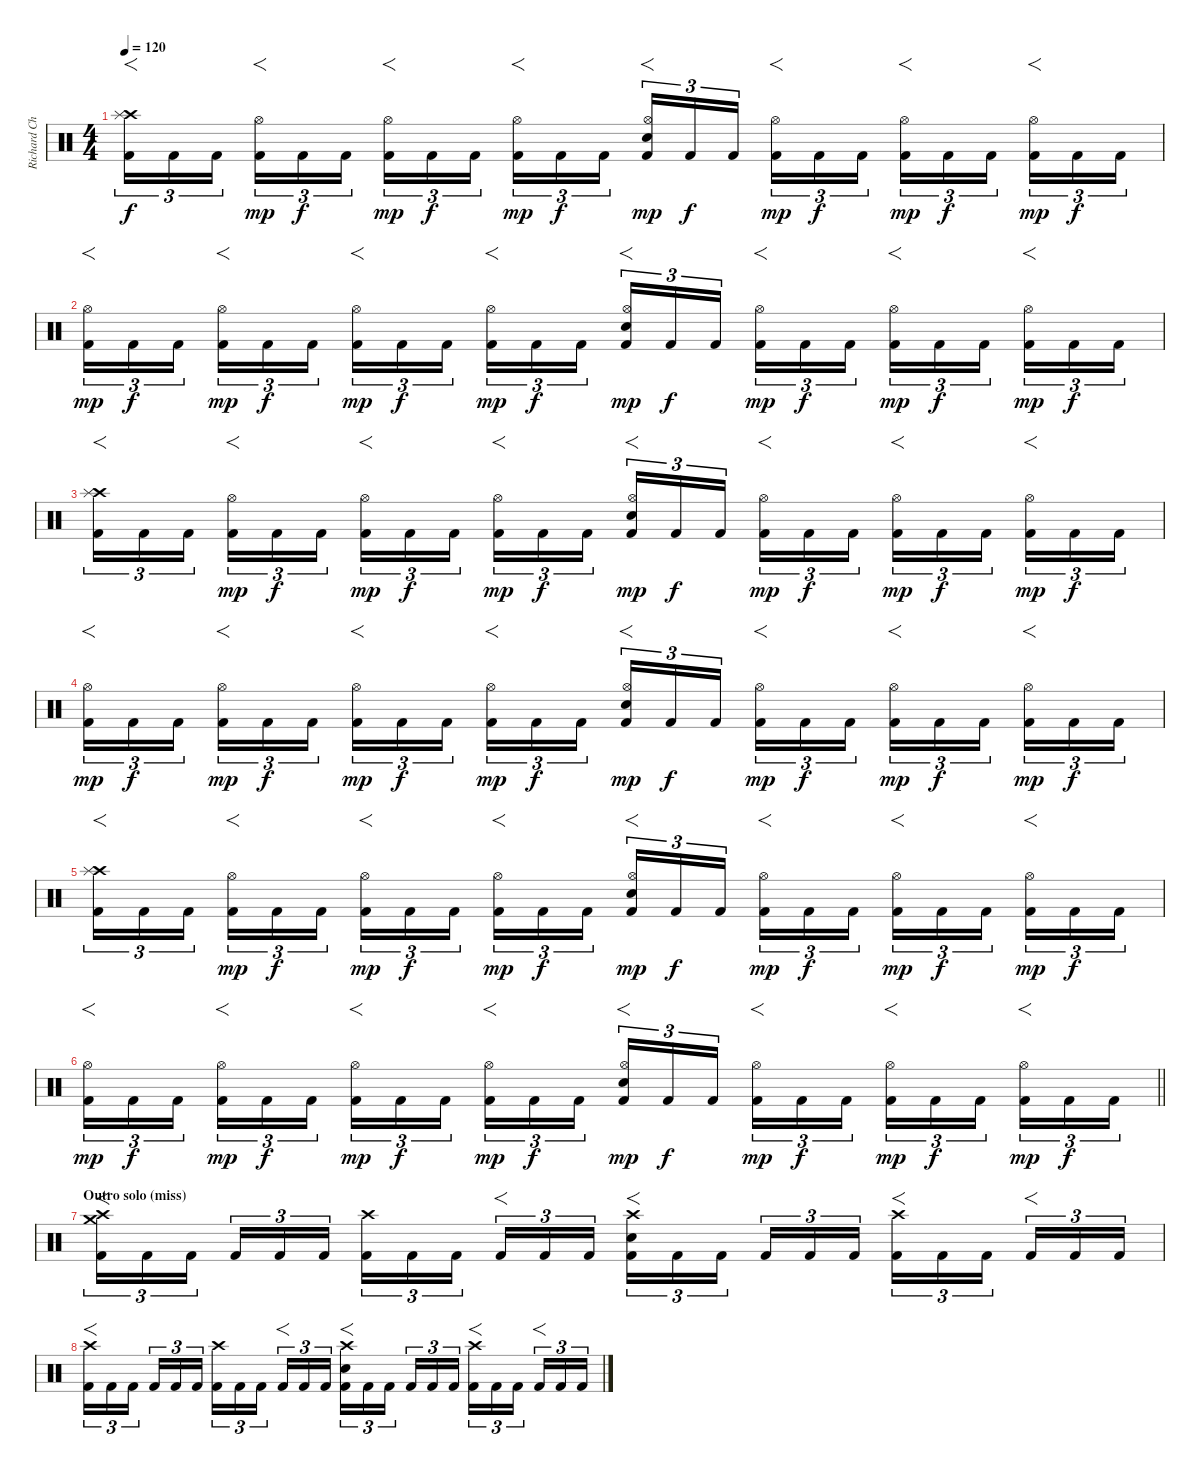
\track ("Richard Christy" "Richard Ch") {instrument percussion}
\staff {score}
\articulation defaults
\ts (4 4)
\tempo 120
\clef neutral
\ks c
("Crash high (hit)" "Splash (hit)" "Kick (hit) 2").16{f tu (3 2) dy f} "Kick (hit) 2".16{tu (3 2)} "Kick (hit) 2".16{tu (3 2) beam splitsecondary} ("Hi-Hat (open)" "Kick (hit) 2").16{f tu (3 2) dy mp} "Kick (hit) 2".16{tu (3 2) dy f} "Kick (hit) 2".16{tu (3 2)} ("Hi-Hat (open)" "Kick (hit) 2").16{f tu (3 2) dy mp} "Kick (hit) 2".16{tu (3 2) dy f} "Kick (hit) 2".16{tu (3 2) beam splitsecondary} ("Hi-Hat (open)" "Kick (hit) 2").16{f tu (3 2) dy mp} "Kick (hit) 2".16{tu (3 2) dy f} "Kick (hit) 2".16{tu (3 2)} ("Hi-Hat (open)" "Snare (hit) 2" "Kick (hit) 2").16{f tu (3 2) dy mp} "Kick (hit) 2".16{tu (3 2) dy f} "Kick (hit) 2".16{tu (3 2) beam splitsecondary} ("Hi-Hat (open)" "Kick (hit) 2").16{f tu (3 2) dy mp} "Kick (hit) 2".16{tu (3 2) dy f} "Kick (hit) 2".16{tu (3 2)} ("Hi-Hat (open)" "Kick (hit) 2").16{f tu (3 2) dy mp} "Kick (hit) 2".16{tu (3 2) dy f} "Kick (hit) 2".16{tu (3 2) beam splitsecondary} ("Hi-Hat (open)" "Kick (hit) 2").16{f tu (3 2) dy mp} "Kick (hit) 2".16{tu (3 2) dy f} "Kick (hit) 2".16{tu (3 2)} |
("Hi-Hat (open)" "Kick (hit) 2").16{f tu (3 2) dy mp} "Kick (hit) 2".16{tu (3 2) dy f} "Kick (hit) 2".16{tu (3 2) beam splitsecondary} ("Hi-Hat (open)" "Kick (hit) 2").16{f tu (3 2) dy mp} "Kick (hit) 2".16{tu (3 2) dy f} "Kick (hit) 2".16{tu (3 2)} ("Hi-Hat (open)" "Kick (hit) 2").16{f tu (3 2) dy mp} "Kick (hit) 2".16{tu (3 2) dy f} "Kick (hit) 2".16{tu (3 2) beam splitsecondary} ("Hi-Hat (open)" "Kick (hit) 2").16{f tu (3 2) dy mp} "Kick (hit) 2".16{tu (3 2) dy f} "Kick (hit) 2".16{tu (3 2)} ("Hi-Hat (open)" "Snare (hit) 2" "Kick (hit) 2").16{f tu (3 2) dy mp} "Kick (hit) 2".16{tu (3 2) dy f} "Kick (hit) 2".16{tu (3 2) beam splitsecondary} ("Hi-Hat (open)" "Kick (hit) 2").16{f tu (3 2) dy mp} "Kick (hit) 2".16{tu (3 2) dy f} "Kick (hit) 2".16{tu (3 2)} ("Hi-Hat (open)" "Kick (hit) 2").16{f tu (3 2) dy mp} "Kick (hit) 2".16{tu (3 2) dy f} "Kick (hit) 2".16{tu (3 2) beam splitsecondary} ("Hi-Hat (open)" "Kick (hit) 2").16{f tu (3 2) dy mp} "Kick (hit) 2".16{tu (3 2) dy f} "Kick (hit) 2".16{tu (3 2)} |
("Crash high (hit)" "Splash (hit)" "Kick (hit) 2").16{f tu (3 2)} "Kick (hit) 2".16{tu (3 2)} "Kick (hit) 2".16{tu (3 2) beam splitsecondary} ("Hi-Hat (open)" "Kick (hit) 2").16{f tu (3 2) dy mp} "Kick (hit) 2".16{tu (3 2) dy f} "Kick (hit) 2".16{tu (3 2)} ("Hi-Hat (open)" "Kick (hit) 2").16{f tu (3 2) dy mp} "Kick (hit) 2".16{tu (3 2) dy f} "Kick (hit) 2".16{tu (3 2) beam splitsecondary} ("Hi-Hat (open)" "Kick (hit) 2").16{f tu (3 2) dy mp} "Kick (hit) 2".16{tu (3 2) dy f} "Kick (hit) 2".16{tu (3 2)} ("Hi-Hat (open)" "Snare (hit) 2" "Kick (hit) 2").16{f tu (3 2) dy mp} "Kick (hit) 2".16{tu (3 2) dy f} "Kick (hit) 2".16{tu (3 2) beam splitsecondary} ("Hi-Hat (open)" "Kick (hit) 2").16{f tu (3 2) dy mp} "Kick (hit) 2".16{tu (3 2) dy f} "Kick (hit) 2".16{tu (3 2)} ("Hi-Hat (open)" "Kick (hit) 2").16{f tu (3 2) dy mp} "Kick (hit) 2".16{tu (3 2) dy f} "Kick (hit) 2".16{tu (3 2) beam splitsecondary} ("Hi-Hat (open)" "Kick (hit) 2").16{f tu (3 2) dy mp} "Kick (hit) 2".16{tu (3 2) dy f} "Kick (hit) 2".16{tu (3 2)} |
("Hi-Hat (open)" "Kick (hit) 2").16{f tu (3 2) dy mp} "Kick (hit) 2".16{tu (3 2) dy f} "Kick (hit) 2".16{tu (3 2) beam splitsecondary} ("Hi-Hat (open)" "Kick (hit) 2").16{f tu (3 2) dy mp} "Kick (hit) 2".16{tu (3 2) dy f} "Kick (hit) 2".16{tu (3 2)} ("Hi-Hat (open)" "Kick (hit) 2").16{f tu (3 2) dy mp} "Kick (hit) 2".16{tu (3 2) dy f} "Kick (hit) 2".16{tu (3 2) beam splitsecondary} ("Hi-Hat (open)" "Kick (hit) 2").16{f tu (3 2) dy mp} "Kick (hit) 2".16{tu (3 2) dy f} "Kick (hit) 2".16{tu (3 2)} ("Hi-Hat (open)" "Snare (hit) 2" "Kick (hit) 2").16{f tu (3 2) dy mp} "Kick (hit) 2".16{tu (3 2) dy f} "Kick (hit) 2".16{tu (3 2) beam splitsecondary} ("Hi-Hat (open)" "Kick (hit) 2").16{f tu (3 2) dy mp} "Kick (hit) 2".16{tu (3 2) dy f} "Kick (hit) 2".16{tu (3 2)} ("Hi-Hat (open)" "Kick (hit) 2").16{f tu (3 2) dy mp} "Kick (hit) 2".16{tu (3 2) dy f} "Kick (hit) 2".16{tu (3 2) beam splitsecondary} ("Hi-Hat (open)" "Kick (hit) 2").16{f tu (3 2) dy mp} "Kick (hit) 2".16{tu (3 2) dy f} "Kick (hit) 2".16{tu (3 2)} |
("Crash high (hit)" "Splash (hit)" "Kick (hit) 2").16{f tu (3 2)} "Kick (hit) 2".16{tu (3 2)} "Kick (hit) 2".16{tu (3 2) beam splitsecondary} ("Hi-Hat (open)" "Kick (hit) 2").16{f tu (3 2) dy mp} "Kick (hit) 2".16{tu (3 2) dy f} "Kick (hit) 2".16{tu (3 2)} ("Hi-Hat (open)" "Kick (hit) 2").16{f tu (3 2) dy mp} "Kick (hit) 2".16{tu (3 2) dy f} "Kick (hit) 2".16{tu (3 2) beam splitsecondary} ("Hi-Hat (open)" "Kick (hit) 2").16{f tu (3 2) dy mp} "Kick (hit) 2".16{tu (3 2) dy f} "Kick (hit) 2".16{tu (3 2)} ("Hi-Hat (open)" "Snare (hit) 2" "Kick (hit) 2").16{f tu (3 2) dy mp} "Kick (hit) 2".16{tu (3 2) dy f} "Kick (hit) 2".16{tu (3 2) beam splitsecondary} ("Hi-Hat (open)" "Kick (hit) 2").16{f tu (3 2) dy mp} "Kick (hit) 2".16{tu (3 2) dy f} "Kick (hit) 2".16{tu (3 2)} ("Hi-Hat (open)" "Kick (hit) 2").16{f tu (3 2) dy mp} "Kick (hit) 2".16{tu (3 2) dy f} "Kick (hit) 2".16{tu (3 2) beam splitsecondary} ("Hi-Hat (open)" "Kick (hit) 2").16{f tu (3 2) dy mp} "Kick (hit) 2".16{tu (3 2) dy f} "Kick (hit) 2".16{tu (3 2)} |
\barLineRight lightlight
("Hi-Hat (open)" "Kick (hit) 2").16{f tu (3 2) dy mp} "Kick (hit) 2".16{tu (3 2) dy f} "Kick (hit) 2".16{tu (3 2) beam splitsecondary} ("Hi-Hat (open)" "Kick (hit) 2").16{f tu (3 2) dy mp} "Kick (hit) 2".16{tu (3 2) dy f} "Kick (hit) 2".16{tu (3 2)} ("Hi-Hat (open)" "Kick (hit) 2").16{f tu (3 2) dy mp} "Kick (hit) 2".16{tu (3 2) dy f} "Kick (hit) 2".16{tu (3 2) beam splitsecondary} ("Hi-Hat (open)" "Kick (hit) 2").16{f tu (3 2) dy mp} "Kick (hit) 2".16{tu (3 2) dy f} "Kick (hit) 2".16{tu (3 2)} ("Hi-Hat (open)" "Snare (hit) 2" "Kick (hit) 2").16{f tu (3 2) dy mp} "Kick (hit) 2".16{tu (3 2) dy f} "Kick (hit) 2".16{tu (3 2) beam splitsecondary} ("Hi-Hat (open)" "Kick (hit) 2").16{f tu (3 2) dy mp} "Kick (hit) 2".16{tu (3 2) dy f} "Kick (hit) 2".16{tu (3 2)} ("Hi-Hat (open)" "Kick (hit) 2").16{f tu (3 2) dy mp} "Kick (hit) 2".16{tu (3 2) dy f} "Kick (hit) 2".16{tu (3 2) beam splitsecondary} ("Hi-Hat (open)" "Kick (hit) 2").16{f tu (3 2) dy mp} "Kick (hit) 2".16{tu (3 2) dy f} "Kick (hit) 2".16{tu (3 2)} |
\section ("" "Outro solo (miss)")
("Crash high (hit)" "Crash medium (hit)" "Kick (hit) 2").16{f tu (3 2)} "Kick (hit) 2".16{tu (3 2)} "Kick (hit) 2".16{tu (3 2) beam splitsecondary} "Kick (hit) 2".16{tu (3 2)} "Kick (hit) 2".16{tu (3 2)} "Kick (hit) 2".16{tu (3 2)} ("Crash high (hit)" "Kick (hit) 2").16{tu (3 2)} "Kick (hit) 2".16{tu (3 2)} "Kick (hit) 2".16{tu (3 2) beam splitsecondary} "Kick (hit) 2".16{f tu (3 2)} "Kick (hit) 2".16{tu (3 2)} "Kick (hit) 2".16{tu (3 2)} ("Crash high (hit)" "Snare (hit) 2" "Kick (hit) 2").16{f tu (3 2)} "Kick (hit) 2".16{tu (3 2)} "Kick (hit) 2".16{tu (3 2) beam splitsecondary} "Kick (hit) 2".16{tu (3 2)} "Kick (hit) 2".16{tu (3 2)} "Kick (hit) 2".16{tu (3 2)} ("Crash high (hit)" "Kick (hit) 2").16{f tu (3 2)} "Kick (hit) 2".16{tu (3 2)} "Kick (hit) 2".16{tu (3 2) beam splitsecondary} "Kick (hit) 2".16{f tu (3 2)} "Kick (hit) 2".16{tu (3 2)} "Kick (hit) 2".16{tu (3 2)} |
("Crash high (hit)" "Kick (hit) 2").16{f tu (3 2)} "Kick (hit) 2".16{tu (3 2)} "Kick (hit) 2".16{tu (3 2) beam splitsecondary} "Kick (hit) 2".16{tu (3 2)} "Kick (hit) 2".16{tu (3 2)} "Kick (hit) 2".16{tu (3 2)} ("Crash high (hit)" "Kick (hit) 2").16{tu (3 2)} "Kick (hit) 2".16{tu (3 2)} "Kick (hit) 2".16{tu (3 2) beam splitsecondary} "Kick (hit) 2".16{f tu (3 2)} "Kick (hit) 2".16{tu (3 2)} "Kick (hit) 2".16{tu (3 2)} ("Crash high (hit)" "Snare (hit) 2" "Kick (hit) 2").16{f tu (3 2)} "Kick (hit) 2".16{tu (3 2)} "Kick (hit) 2".16{tu (3 2) beam splitsecondary} "Kick (hit) 2".16{tu (3 2)} "Kick (hit) 2".16{tu (3 2)} "Kick (hit) 2".16{tu (3 2)} ("Crash high (hit)" "Kick (hit) 2").16{f tu (3 2)} "Kick (hit) 2".16{tu (3 2)} "Kick (hit) 2".16{tu (3 2) beam splitsecondary} "Kick (hit) 2".16{f tu (3 2)} "Kick (hit) 2".16{tu (3 2)} "Kick (hit) 2".16{tu (3 2)}
